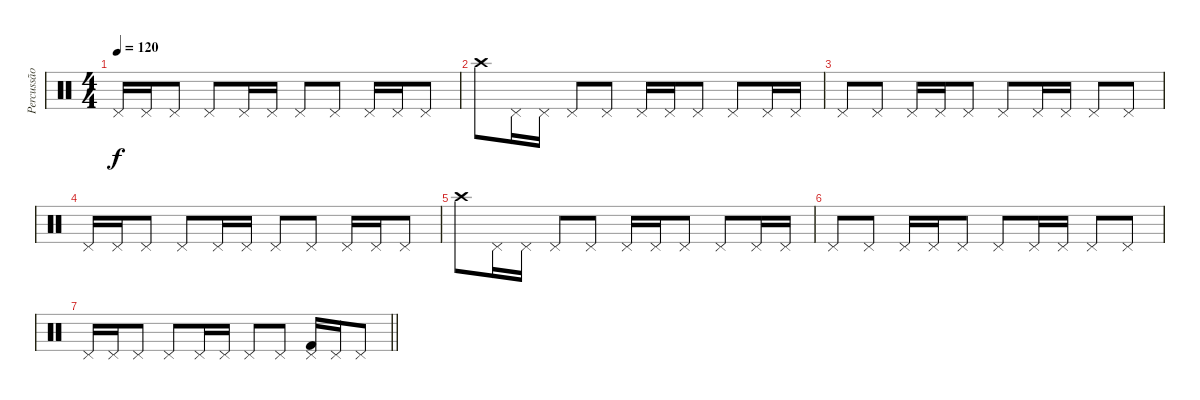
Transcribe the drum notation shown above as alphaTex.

\track ("Percussão" "Percussão") {instrument percussion}
\staff {score}
\articulation defaults
\ts (4 4)
\tempo 120
\clef neutral
\ks c "Pedal Hi-Hat (hit)".16{dy f} "Pedal Hi-Hat (hit)".16 "Pedal Hi-Hat (hit)".8 "Pedal Hi-Hat (hit)".8 "Pedal Hi-Hat (hit)".16 "Pedal Hi-Hat (hit)".16 "Pedal Hi-Hat (hit)".8 "Pedal Hi-Hat (hit)".8 "Pedal Hi-Hat (hit)".16 "Pedal Hi-Hat (hit)".16 "Pedal Hi-Hat (hit)".8
|
"Crash high (hit)".8 "Pedal Hi-Hat (hit)".16 "Pedal Hi-Hat (hit)".16 "Pedal Hi-Hat (hit)".8 "Pedal Hi-Hat (hit)".8 "Pedal Hi-Hat (hit)".16 "Pedal Hi-Hat (hit)".16 "Pedal Hi-Hat (hit)".8 "Pedal Hi-Hat (hit)".8 "Pedal Hi-Hat (hit)".16 "Pedal Hi-Hat (hit)".16 |
"Pedal Hi-Hat (hit)".8 "Pedal Hi-Hat (hit)".8 "Pedal Hi-Hat (hit)".16 "Pedal Hi-Hat (hit)".16 "Pedal Hi-Hat (hit)".8 "Pedal Hi-Hat (hit)".8 "Pedal Hi-Hat (hit)".16 "Pedal Hi-Hat (hit)".16 "Pedal Hi-Hat (hit)".8 "Pedal Hi-Hat (hit)".8 |
"Pedal Hi-Hat (hit)".16 "Pedal Hi-Hat (hit)".16 "Pedal Hi-Hat (hit)".8 "Pedal Hi-Hat (hit)".8 "Pedal Hi-Hat (hit)".16 "Pedal Hi-Hat (hit)".16 "Pedal Hi-Hat (hit)".8 "Pedal Hi-Hat (hit)".8 "Pedal Hi-Hat (hit)".16 "Pedal Hi-Hat (hit)".16 "Pedal Hi-Hat (hit)".8 |
"Crash high (hit)".8 "Pedal Hi-Hat (hit)".16 "Pedal Hi-Hat (hit)".16 "Pedal Hi-Hat (hit)".8 "Pedal Hi-Hat (hit)".8 "Pedal Hi-Hat (hit)".16 "Pedal Hi-Hat (hit)".16 "Pedal Hi-Hat (hit)".8 "Pedal Hi-Hat (hit)".8 "Pedal Hi-Hat (hit)".16 "Pedal Hi-Hat (hit)".16 |
"Pedal Hi-Hat (hit)".8 "Pedal Hi-Hat (hit)".8 "Pedal Hi-Hat (hit)".16 "Pedal Hi-Hat (hit)".16 "Pedal Hi-Hat (hit)".8 "Pedal Hi-Hat (hit)".8 "Pedal Hi-Hat (hit)".16 "Pedal Hi-Hat (hit)".16 "Pedal Hi-Hat (hit)".8 "Pedal Hi-Hat (hit)".8 |
\barLineRight lightlight "Pedal Hi-Hat (hit)".16 "Pedal Hi-Hat (hit)".16 "Pedal Hi-Hat (hit)".8 "Pedal Hi-Hat (hit)".8 "Pedal Hi-Hat (hit)".16 "Pedal Hi-Hat (hit)".16 "Pedal Hi-Hat (hit)".8 "Pedal Hi-Hat (hit)".8
("Pedal Hi-Hat (hit)" "Kick (hit) 2").16 "Pedal Hi-Hat (hit)".16 "Pedal Hi-Hat (hit)".8
